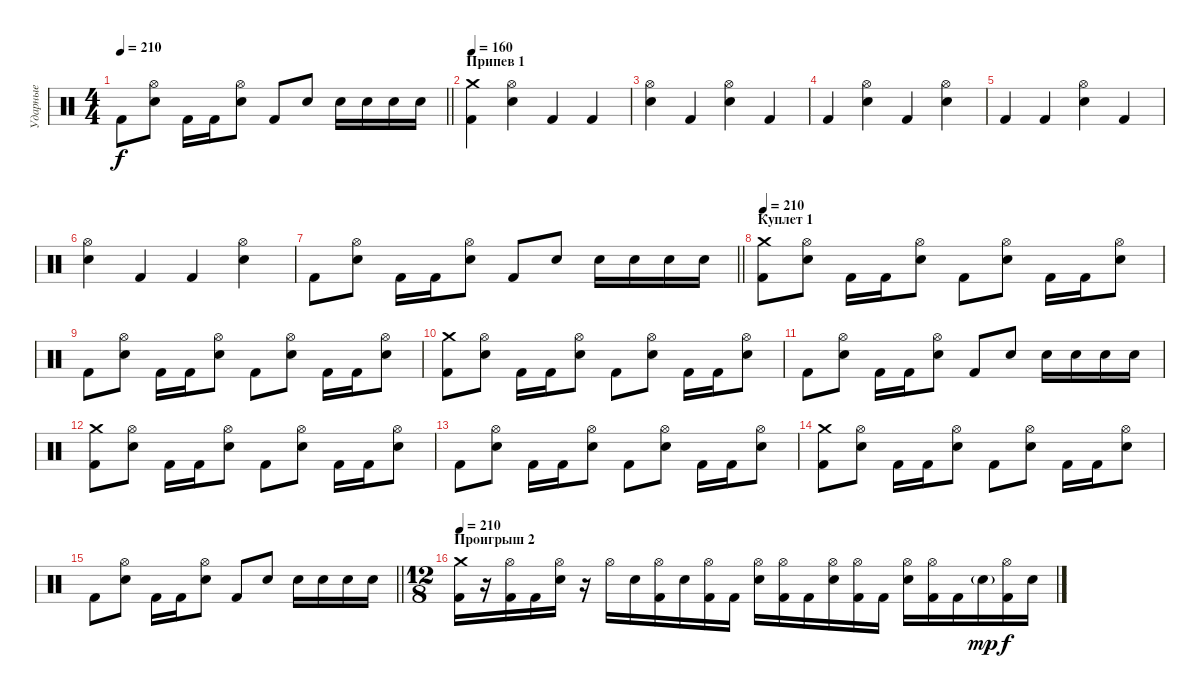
\track ("Ударные" "Ударные") {instrument percussion}
\staff {score}
\articulation defaults
\ts (4 4)
\tempo 210
\clef neutral
\barLineRight lightlight
\ks c "Kick (hit) 2".8{dy f}
("Electric Snare (hit)" "Hi-Hat (open)").8 "Kick (hit) 2".16 "Kick (hit) 2".16 ("Electric Snare (hit)" "Hi-Hat (open)").8 "Kick (hit) 2".8 "Electric Snare (hit)".8 "Electric Snare (hit)".16 "Electric Snare (hit)".16 "Electric Snare (hit)".16 "Electric Snare (hit)".16 |
\section ("" "Припев 1")
\tempo 160
("Kick (hit) 2" "Crash medium (hit)").4 ("Electric Snare (hit)" "Hi-Hat (open)").4 "Kick (hit) 2".4 "Kick (hit) 2".4 |
("Electric Snare (hit)" "Hi-Hat (open)").4 "Kick (hit) 2".4 ("Electric Snare (hit)" "Hi-Hat (open)").4 "Kick (hit) 2".4 |
"Kick (hit) 2".4 ("Electric Snare (hit)" "Hi-Hat (open)").4 "Kick (hit) 2".4 ("Electric Snare (hit)" "Hi-Hat (open)").4 |
"Kick (hit) 2".4 "Kick (hit) 2".4 ("Electric Snare (hit)" "Hi-Hat (open)").4 "Kick (hit) 2".4 |
("Electric Snare (hit)" "Hi-Hat (open)").4 "Kick (hit) 2".4 "Kick (hit) 2".4 ("Electric Snare (hit)" "Hi-Hat (open)").4 |
\barLineRight lightlight "Kick (hit) 2".8
("Electric Snare (hit)" "Hi-Hat (open)").8 "Kick (hit) 2".16 "Kick (hit) 2".16 ("Electric Snare (hit)" "Hi-Hat (open)").8 "Kick (hit) 2".8 "Electric Snare (hit)".8 "Electric Snare (hit)".16 "Electric Snare (hit)".16 "Electric Snare (hit)".16 "Electric Snare (hit)".16 |
\section ("" "Куплет 1")
\tempo 210
("Kick (hit) 2" "Crash medium (hit)").8 ("Electric Snare (hit)" "Hi-Hat (open)").8 "Kick (hit) 2".16 "Kick (hit) 2".16 ("Electric Snare (hit)" "Hi-Hat (open)").8 "Kick (hit) 2".8 ("Electric Snare (hit)" "Hi-Hat (open)").8 "Kick (hit) 2".16 "Kick (hit) 2".16 ("Electric Snare (hit)" "Hi-Hat (open)").8 |
"Kick (hit) 2".8 ("Electric Snare (hit)" "Hi-Hat (open)").8 "Kick (hit) 2".16 "Kick (hit) 2".16 ("Electric Snare (hit)" "Hi-Hat (open)").8 "Kick (hit) 2".8 ("Electric Snare (hit)" "Hi-Hat (open)").8 "Kick (hit) 2".16 "Kick (hit) 2".16 ("Electric Snare (hit)" "Hi-Hat (open)").8 |
("Kick (hit) 2" "Crash medium (hit)").8 ("Electric Snare (hit)" "Hi-Hat (open)").8 "Kick (hit) 2".16 "Kick (hit) 2".16 ("Electric Snare (hit)" "Hi-Hat (open)").8 "Kick (hit) 2".8 ("Electric Snare (hit)" "Hi-Hat (open)").8 "Kick (hit) 2".16 "Kick (hit) 2".16 ("Electric Snare (hit)" "Hi-Hat (open)").8 |
"Kick (hit) 2".8 ("Electric Snare (hit)" "Hi-Hat (open)").8 "Kick (hit) 2".16 "Kick (hit) 2".16 ("Electric Snare (hit)" "Hi-Hat (open)").8 "Kick (hit) 2".8 "Electric Snare (hit)".8 "Electric Snare (hit)".16 "Electric Snare (hit)".16 "Electric Snare (hit)".16 "Electric Snare (hit)".16 |
("Kick (hit) 2" "Crash medium (hit)").8 ("Electric Snare (hit)" "Hi-Hat (open)").8 "Kick (hit) 2".16 "Kick (hit) 2".16 ("Electric Snare (hit)" "Hi-Hat (open)").8 "Kick (hit) 2".8 ("Electric Snare (hit)" "Hi-Hat (open)").8 "Kick (hit) 2".16 "Kick (hit) 2".16 ("Electric Snare (hit)" "Hi-Hat (open)").8 |
"Kick (hit) 2".8 ("Electric Snare (hit)" "Hi-Hat (open)").8 "Kick (hit) 2".16 "Kick (hit) 2".16 ("Electric Snare (hit)" "Hi-Hat (open)").8 "Kick (hit) 2".8 ("Electric Snare (hit)" "Hi-Hat (open)").8 "Kick (hit) 2".16 "Kick (hit) 2".16 ("Electric Snare (hit)" "Hi-Hat (open)").8 |
("Kick (hit) 2" "Crash medium (hit)").8 ("Electric Snare (hit)" "Hi-Hat (open)").8 "Kick (hit) 2".16 "Kick (hit) 2".16 ("Electric Snare (hit)" "Hi-Hat (open)").8 "Kick (hit) 2".8 ("Electric Snare (hit)" "Hi-Hat (open)").8 "Kick (hit) 2".16 "Kick (hit) 2".16 ("Electric Snare (hit)" "Hi-Hat (open)").8 |
\barLineRight lightlight "Kick (hit) 2".8
("Electric Snare (hit)" "Hi-Hat (open)").8 "Kick (hit) 2".16 "Kick (hit) 2".16 ("Electric Snare (hit)" "Hi-Hat (open)").8 "Kick (hit) 2".8 "Electric Snare (hit)".8 "Electric Snare (hit)".16 "Electric Snare (hit)".16 "Electric Snare (hit)".16 "Electric Snare (hit)".16 |
\ts (12 8)
\section ("" "Проигрыш 2")
\tempo 210
("Kick (hit) 2" "Crash medium (hit)").16 r.16 ("Kick (hit) 2" "Hi-Hat (open)").16 "Kick (hit) 2".16 ("Electric Snare (hit)" "Hi-Hat (open)").16 r.16 "Hi-Hat (open)".16 "Electric Snare (hit)".16 ("Kick (hit) 2" "Hi-Hat (open)").16 "Electric Snare (hit)".16 ("Kick (hit) 2" "Hi-Hat (open)").16 "Kick (hit) 2".16 ("Electric Snare (hit)" "Hi-Hat (open)").16 ("Kick (hit) 2" "Hi-Hat (open)").16 "Kick (hit) 2".16 ("Electric Snare (hit)" "Hi-Hat (open)").16 ("Kick (hit) 2" "Hi-Hat (open)").16 "Kick (hit) 2".16 ("Electric Snare (hit)" "Hi-Hat (open)").16 ("Kick (hit) 2" "Hi-Hat (open)").16 "Kick (hit) 2".16 "Electric Snare (hit)"{g}.16{dy mp} ("Kick (hit) 2" "Hi-Hat (open)").16{dy f} "Electric Snare (hit)".16
